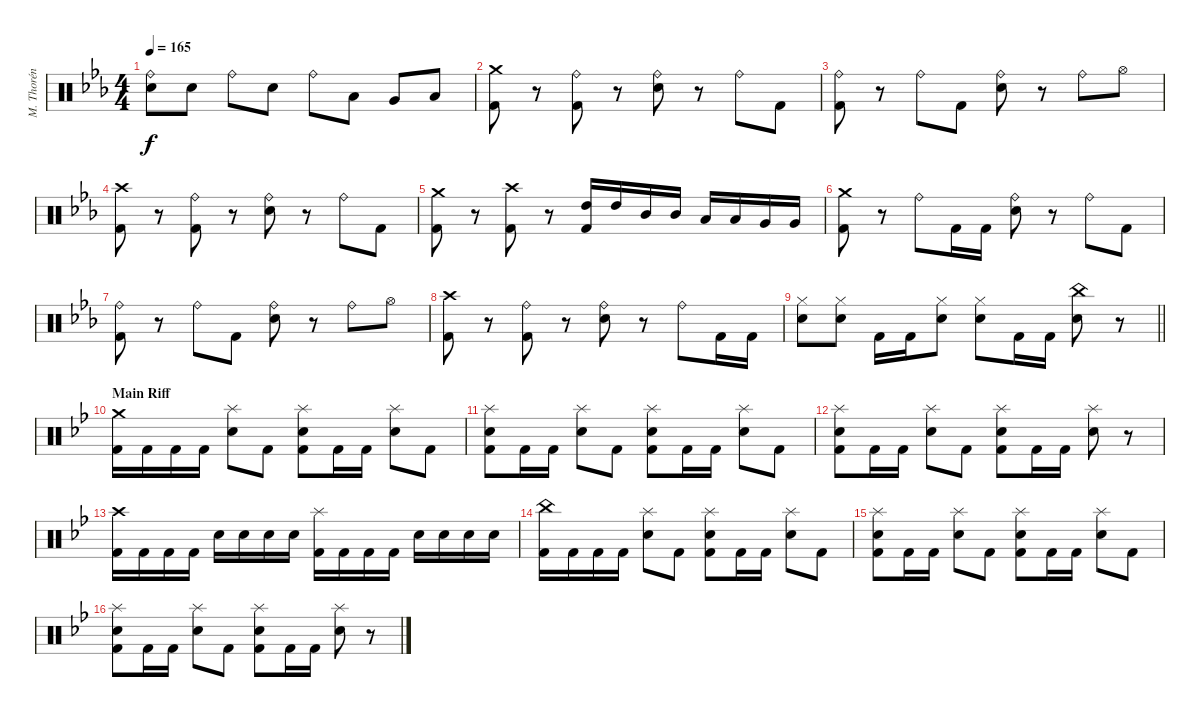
\track ("M. Thorén (Drums)" "M. Thorén ") {instrument percussion}
\staff {score}
\articulation defaults
\ts (4 4)
\tempo 165
\clef neutral
\ks cminor
("Ride (bell)" "Electric Snare (hit)").8{dy f} "Electric Snare (hit)".8 "Ride (bell)".8 "Electric Snare (hit)".8 "Ride (bell)".8 "Low Tom (hit)".8 "Very Low Tom (hit)".8 "Low Floor Tom (hit)".8 |
("Crash medium (hit)" "Kick (hit) 2").8 r.8 ("Ride (bell)" "Kick (hit) 2").8 r.8 ("Ride (bell)" "Electric Snare (hit)").8 r.8 "Ride (bell)".8 "Kick (hit) 2".8 |
("Ride (bell)" "Kick (hit) 2").8 r.8 "Ride (bell)".8 "Kick (hit) 2".8 ("Ride (bell)" "Electric Snare (hit)").8 r.8 "Ride (bell)".8 "Hi-Hat (open)".8 |
("Crash high (hit)" "Kick (hit) 2").8 r.8 ("Ride (bell)" "Kick (hit) 2").8 r.8 ("Ride (bell)" "Electric Snare (hit)").8 r.8 "Ride (bell)".8 "Kick (hit) 2".8 |
("Crash medium (hit)" "Kick (hit) 2").8 r.8 ("Crash high (hit)" "Kick (hit) 2").8 r.8 ("High Tom (hit)" "Kick (hit) 2").16 "High Tom (hit)".16 "Mid Tom (hit)".16 "Mid Tom (hit)".16 "Low Tom (hit)".16 "Low Tom (hit)".16 "Very Low Tom (hit)".16 "Very Low Tom (hit)".16 |
("Crash medium (hit)" "Kick (hit) 2").8 r.8 "Ride (bell)".8 "Kick (hit) 2".16 "Kick (hit) 2".16 ("Ride (bell)" "Electric Snare (hit)").8 r.8 "Ride (bell)".8 "Kick (hit) 2".8 |
("Ride (bell)" "Kick (hit) 2").8 r.8 "Ride (bell)".8 "Kick (hit) 2".8 ("Ride (bell)" "Electric Snare (hit)").8 r.8 "Ride (bell)".8 "Hi-Hat (open)".8 |
("Crash high (hit)" "Kick (hit) 2").8 r.8 ("Ride (bell)" "Kick (hit) 2").8 r.8 ("Ride (bell)" "Electric Snare (hit)").8 r.8 "Ride (bell)".8 "Kick (hit) 2".16 "Kick (hit) 2".16 |
\barLineRight lightlight
("Hi-Hat (closed)" "Electric Snare (hit)").8 ("Hi-Hat (closed)" "Electric Snare (hit)").8 "Kick (hit) 2".16 "Kick (hit) 2".16 ("Hi-Hat (closed)" "Electric Snare (hit)").8 ("Hi-Hat (closed)" "Electric Snare (hit)").8 "Kick (hit) 2".16 "Kick (hit) 2".16 ("China (hit)" "Electric Snare (hit)").8 r.8 |
\section ("" "Main Riff")
\ks gminor
("Crash medium (hit)" "Kick (hit) 2").16 "Kick (hit) 2".16 "Kick (hit) 2".16 "Kick (hit) 2".16 ("Splash (hit)" "Electric Snare (hit)").8 "Kick (hit) 2".8 ("Splash (hit)" "Electric Snare (hit)" "Kick (hit) 2").8 "Kick (hit) 2".16 "Kick (hit) 2".16 ("Splash (hit)" "Electric Snare (hit)").8 "Kick (hit) 2".8 |
("Splash (hit)" "Electric Snare (hit)" "Kick (hit) 2").8 "Kick (hit) 2".16 "Kick (hit) 2".16 ("Splash (hit)" "Electric Snare (hit)").8 "Kick (hit) 2".8 ("Splash (hit)" "Electric Snare (hit)" "Kick (hit) 2").8 "Kick (hit) 2".16 "Kick (hit) 2".16 ("Splash (hit)" "Electric Snare (hit)").8 "Kick (hit) 2".8 |
("Splash (hit)" "Electric Snare (hit)" "Kick (hit) 2").8 "Kick (hit) 2".16 "Kick (hit) 2".16 ("Splash (hit)" "Electric Snare (hit)").8 "Kick (hit) 2".8 ("Splash (hit)" "Electric Snare (hit)" "Kick (hit) 2").8 "Kick (hit) 2".16 "Kick (hit) 2".16 ("Splash (hit)" "Electric Snare (hit)").8 r.8 |
("Crash high (hit)" "Kick (hit) 2").16 "Kick (hit) 2".16 "Kick (hit) 2".16 "Kick (hit) 2".16 "Electric Snare (hit)".16 "Electric Snare (hit)".16 "Electric Snare (hit)".16 "Electric Snare (hit)".16 ("Splash (hit)" "Kick (hit) 2").16 "Kick (hit) 2".16 "Kick (hit) 2".16 "Kick (hit) 2".16 "Electric Snare (hit)".16 "Electric Snare (hit)".16 "Electric Snare (hit)".16 "Electric Snare (hit)".16 |
("China (hit)" "Kick (hit) 2").16 "Kick (hit) 2".16 "Kick (hit) 2".16 "Kick (hit) 2".16 ("Splash (hit)" "Electric Snare (hit)").8 "Kick (hit) 2".8 ("Splash (hit)" "Electric Snare (hit)" "Kick (hit) 2").8 "Kick (hit) 2".16 "Kick (hit) 2".16 ("Splash (hit)" "Electric Snare (hit)").8 "Kick (hit) 2".8 |
("Splash (hit)" "Electric Snare (hit)" "Kick (hit) 2").8 "Kick (hit) 2".16 "Kick (hit) 2".16 ("Splash (hit)" "Electric Snare (hit)").8 "Kick (hit) 2".8 ("Splash (hit)" "Electric Snare (hit)" "Kick (hit) 2").8 "Kick (hit) 2".16 "Kick (hit) 2".16 ("Splash (hit)" "Electric Snare (hit)").8 "Kick (hit) 2".8 |
("Splash (hit)" "Electric Snare (hit)" "Kick (hit) 2").8 "Kick (hit) 2".16 "Kick (hit) 2".16 ("Splash (hit)" "Electric Snare (hit)").8 "Kick (hit) 2".8 ("Splash (hit)" "Electric Snare (hit)" "Kick (hit) 2").8 "Kick (hit) 2".16 "Kick (hit) 2".16 ("Splash (hit)" "Electric Snare (hit)").8 r.8
